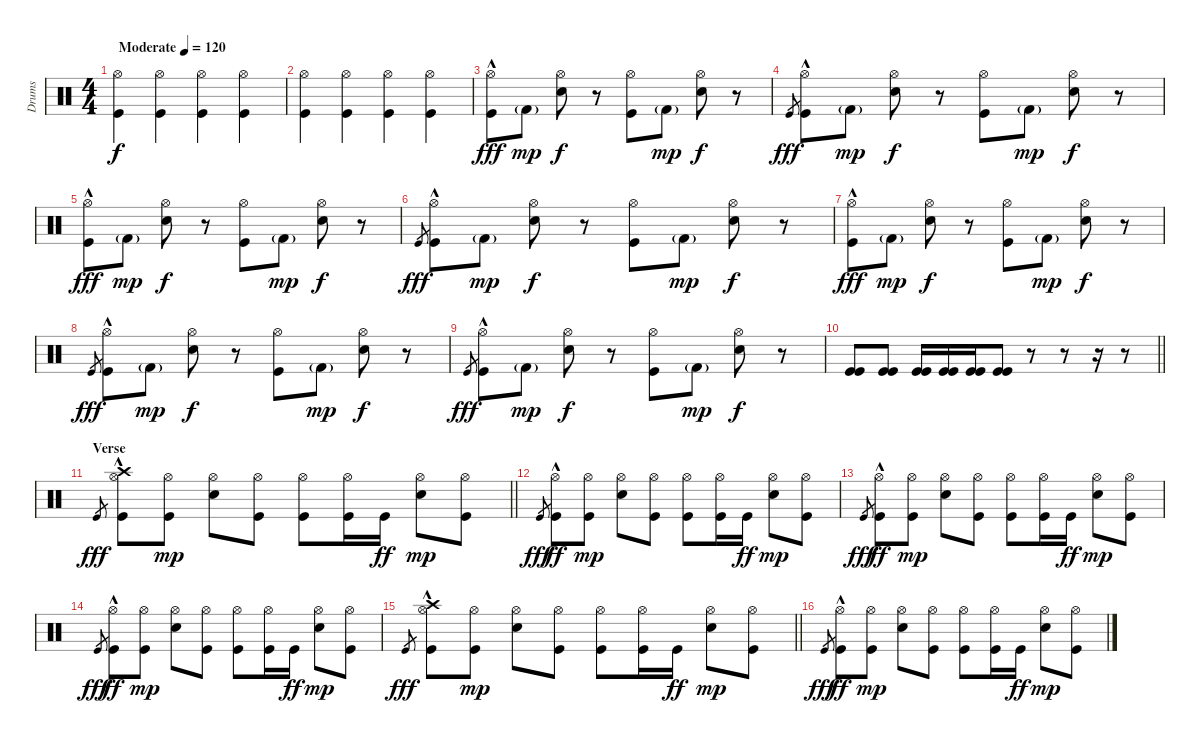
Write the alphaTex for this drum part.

\track ("Drums" "Drums") {instrument percussion}
\staff {score}
\articulation defaults
\ts (4 4)
\tempo (120 "Moderate")
\clef neutral
\ks c
("Kick (hit)" "Hi-Hat (open)").4{dy f} ("Kick (hit)" "Hi-Hat (open)").4 ("Kick (hit)" "Hi-Hat (open)").4 ("Kick (hit)" "Hi-Hat (open)").4 |
("Kick (hit)" "Hi-Hat (open)").4 ("Kick (hit)" "Hi-Hat (open)").4 ("Kick (hit)" "Hi-Hat (open)").4 ("Kick (hit)" "Hi-Hat (open)").4 |
("Kick (hit)"{hac} "Hi-Hat (open)").8{dy fff} "Kick (hit) 2"{g}.8{dy mp} ("Hi-Hat (open)" "Snare (hit) 2").8{dy f} r.8 ("Kick (hit)" "Hi-Hat (open)").8 "Kick (hit) 2"{g}.8{dy mp} ("Hi-Hat (open)" "Snare (hit) 2").8{dy f} r.8 |
"Kick (hit)".8{gr dy fff} ("Kick (hit)"{hac} "Hi-Hat (open)").8 "Kick (hit) 2"{g}.8{dy mp} ("Hi-Hat (open)" "Snare (hit) 2").8{dy f} r.8 ("Kick (hit)" "Hi-Hat (open)").8 "Kick (hit) 2"{g}.8{dy mp} ("Hi-Hat (open)" "Snare (hit) 2").8{dy f} r.8 |
("Kick (hit)"{hac} "Hi-Hat (open)").8{dy fff} "Kick (hit) 2"{g}.8{dy mp} ("Hi-Hat (open)" "Snare (hit) 2").8{dy f} r.8 ("Kick (hit)" "Hi-Hat (open)").8 "Kick (hit) 2"{g}.8{dy mp} ("Hi-Hat (open)" "Snare (hit) 2").8{dy f} r.8 |
"Kick (hit)".8{gr dy fff} ("Kick (hit)"{hac} "Hi-Hat (open)").8 "Kick (hit) 2"{g}.8{dy mp} ("Hi-Hat (open)" "Snare (hit) 2").8{dy f} r.8 ("Kick (hit)" "Hi-Hat (open)").8 "Kick (hit) 2"{g}.8{dy mp} ("Hi-Hat (open)" "Snare (hit) 2").8{dy f} r.8 |
("Kick (hit)"{hac} "Hi-Hat (open)").8{dy fff} "Kick (hit) 2"{g}.8{dy mp} ("Hi-Hat (open)" "Snare (hit) 2").8{dy f} r.8 ("Kick (hit)" "Hi-Hat (open)").8 "Kick (hit) 2"{g}.8{dy mp} ("Hi-Hat (open)" "Snare (hit) 2").8{dy f} r.8 |
"Kick (hit)".8{gr dy fff} ("Kick (hit)"{hac} "Hi-Hat (open)").8 "Kick (hit) 2"{g}.8{dy mp} ("Hi-Hat (open)" "Snare (hit) 2").8{dy f} r.8 ("Kick (hit)" "Hi-Hat (open)").8 "Kick (hit) 2"{g}.8{dy mp} ("Hi-Hat (open)" "Snare (hit) 2").8{dy f} r.8 |
"Kick (hit)".8{gr dy fff} ("Kick (hit)"{hac} "Hi-Hat (open)").8 "Kick (hit) 2"{g}.8{dy mp} ("Hi-Hat (open)" "Snare (hit) 2").8{dy f} r.8 ("Kick (hit)" "Hi-Hat (open)").8 "Kick (hit) 2"{g}.8{dy mp} ("Hi-Hat (open)" "Snare (hit) 2").8{dy f} r.8 |
\barLineRight lightlight
("Kick (hit)" "Kick (hit)").8 ("Kick (hit)" "Kick (hit)").8 ("Kick (hit)" "Kick (hit)").16 ("Kick (hit)" "Kick (hit)").16 ("Kick (hit)" "Kick (hit)").16 ("Kick (hit)" "Kick (hit)").8 r.8 r.8 r.16 r.8 |
\section ("" "Verse")
\barLineRight lightlight "Kick (hit)".8{gr dy fff}
("Kick (hit)"{hac} "Hi-Hat (open)" "Crash high (hit)").8 ("Kick (hit)" "Hi-Hat (open)").8{dy mp} ("Electric Snare (hit)" "Hi-Hat (open)").8 ("Kick (hit)" "Hi-Hat (open)").8 ("Kick (hit)" "Hi-Hat (open)").8 ("Kick (hit)" "Hi-Hat (open)").16 "Kick (hit)".16{dy ff} ("Electric Snare (hit)" "Hi-Hat (open)").8{dy mp} ("Kick (hit)" "Hi-Hat (open)").8 |
\section ("" "")
"Kick (hit)".8{gr dy fff} ("Kick (hit)"{hac} "Hi-Hat (open)").8{dy ff} ("Kick (hit)" "Hi-Hat (open)").8{dy mp} ("Electric Snare (hit)" "Hi-Hat (open)").8 ("Kick (hit)" "Hi-Hat (open)").8 ("Kick (hit)" "Hi-Hat (open)").8 ("Kick (hit)" "Hi-Hat (open)").16 "Kick (hit)".16{dy ff} ("Electric Snare (hit)" "Hi-Hat (open)").8{dy mp} ("Kick (hit)" "Hi-Hat (open)").8 |
"Kick (hit)".8{gr dy fff} ("Kick (hit)"{hac} "Hi-Hat (open)").8{dy ff} ("Kick (hit)" "Hi-Hat (open)").8{dy mp} ("Electric Snare (hit)" "Hi-Hat (open)").8 ("Kick (hit)" "Hi-Hat (open)").8 ("Kick (hit)" "Hi-Hat (open)").8 ("Kick (hit)" "Hi-Hat (open)").16 "Kick (hit)".16{dy ff} ("Electric Snare (hit)" "Hi-Hat (open)").8{dy mp} ("Kick (hit)" "Hi-Hat (open)").8 |
"Kick (hit)".8{gr dy fff} ("Kick (hit)"{hac} "Hi-Hat (open)").8{dy ff} ("Kick (hit)" "Hi-Hat (open)").8{dy mp} ("Electric Snare (hit)" "Hi-Hat (open)").8 ("Kick (hit)" "Hi-Hat (open)").8 ("Kick (hit)" "Hi-Hat (open)").8 ("Kick (hit)" "Hi-Hat (open)").16 "Kick (hit)".16{dy ff} ("Electric Snare (hit)" "Hi-Hat (open)").8{dy mp} ("Kick (hit)" "Hi-Hat (open)").8 |
\barLineRight lightlight "Kick (hit)".8{gr dy fff}
("Kick (hit)"{hac} "Hi-Hat (open)" "Crash high (hit)").8 ("Kick (hit)" "Hi-Hat (open)").8{dy mp} ("Electric Snare (hit)" "Hi-Hat (open)").8 ("Kick (hit)" "Hi-Hat (open)").8 ("Kick (hit)" "Hi-Hat (open)").8 ("Kick (hit)" "Hi-Hat (open)").16 "Kick (hit)".16{dy ff} ("Electric Snare (hit)" "Hi-Hat (open)").8{dy mp} ("Kick (hit)" "Hi-Hat (open)").8 |
"Kick (hit)".8{gr dy fff} ("Kick (hit)"{hac} "Hi-Hat (open)").8{dy ff} ("Kick (hit)" "Hi-Hat (open)").8{dy mp} ("Electric Snare (hit)" "Hi-Hat (open)").8 ("Kick (hit)" "Hi-Hat (open)").8 ("Kick (hit)" "Hi-Hat (open)").8 ("Kick (hit)" "Hi-Hat (open)").16 "Kick (hit)".16{dy ff} ("Electric Snare (hit)" "Hi-Hat (open)").8{dy mp} ("Kick (hit)" "Hi-Hat (open)").8
